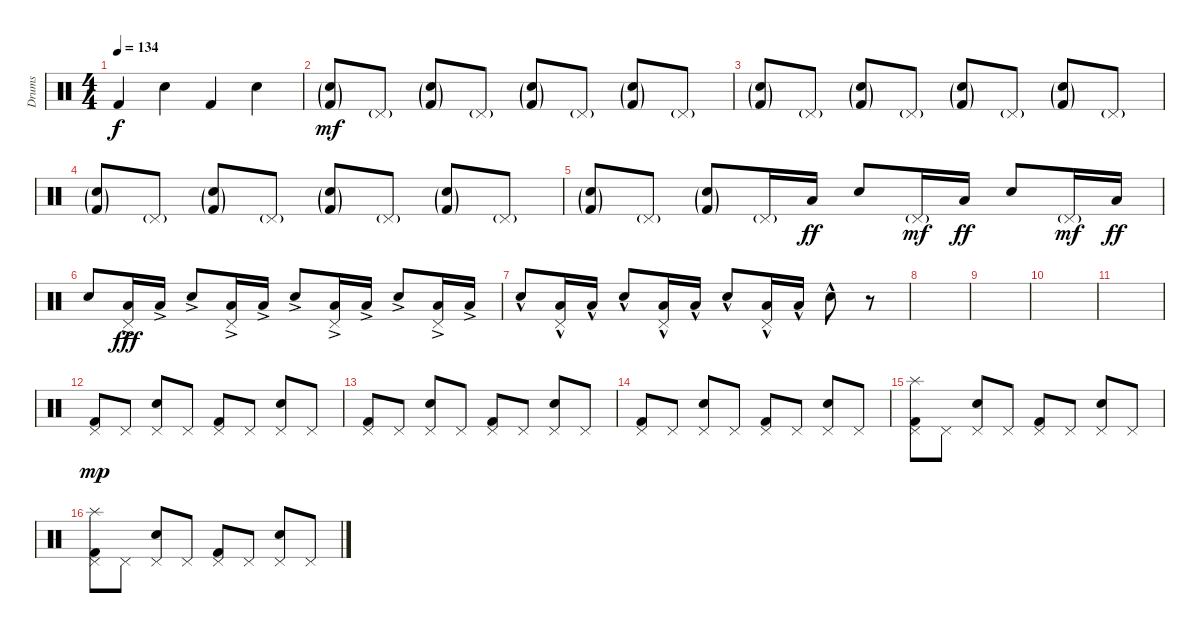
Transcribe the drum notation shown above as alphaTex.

\track ("Drums" "Drums") {instrument percussion}
\staff {score}
\articulation defaults
\ts (4 4)
\tempo 134
\clef neutral
\ks c "Kick (hit) 2".4{dy f} "Electric Snare (hit)".4 "Kick (hit) 2".4 "Electric Snare (hit)".4
|
("Electric Snare (hit)"{g} "Kick (hit) 2"{g}).8{dy mf} "Pedal Hi-Hat (hit)"{g}.8 ("Electric Snare (hit)"{g} "Kick (hit) 2"{g}).8 "Pedal Hi-Hat (hit)"{g}.8 ("Electric Snare (hit)"{g} "Kick (hit) 2"{g}).8 "Pedal Hi-Hat (hit)"{g}.8 ("Electric Snare (hit)"{g} "Kick (hit) 2"{g}).8 "Pedal Hi-Hat (hit)"{g}.8 |
("Electric Snare (hit)"{g} "Kick (hit) 2"{g}).8 "Pedal Hi-Hat (hit)"{g}.8 ("Electric Snare (hit)"{g} "Kick (hit) 2"{g}).8 "Pedal Hi-Hat (hit)"{g}.8 ("Electric Snare (hit)"{g} "Kick (hit) 2"{g}).8 "Pedal Hi-Hat (hit)"{g}.8 ("Electric Snare (hit)"{g} "Kick (hit) 2"{g}).8 "Pedal Hi-Hat (hit)"{g}.8 |
("Electric Snare (hit)"{g} "Kick (hit) 2"{g}).8 "Pedal Hi-Hat (hit)"{g}.8 ("Electric Snare (hit)"{g} "Kick (hit) 2"{g}).8 "Pedal Hi-Hat (hit)"{g}.8 ("Electric Snare (hit)"{g} "Kick (hit) 2"{g}).8 "Pedal Hi-Hat (hit)"{g}.8 ("Electric Snare (hit)"{g} "Kick (hit) 2"{g}).8 "Pedal Hi-Hat (hit)"{g}.8 |
("Electric Snare (hit)"{g} "Kick (hit) 2"{g}).8 "Pedal Hi-Hat (hit)"{g}.8 ("Electric Snare (hit)"{g} "Kick (hit) 2"{g}).8 "Pedal Hi-Hat (hit)"{g}.16 "Low Floor Tom (hit)".16{dy ff} "Electric Snare (hit)".8 "Pedal Hi-Hat (hit)"{g}.16{dy mf} "Low Floor Tom (hit)".16{dy ff} "Electric Snare (hit)".8 "Pedal Hi-Hat (hit)"{g}.16{dy mf} "Low Floor Tom (hit)".16{dy ff} |
"Electric Snare (hit)".8 ("Pedal Hi-Hat (hit)"{ac} "Low Floor Tom (hit)"{ac}).16{dy fff} "Low Floor Tom (hit)"{ac}.16 "Electric Snare (hit)"{ac}.8 ("Pedal Hi-Hat (hit)"{ac} "Low Floor Tom (hit)"{ac}).16 "Low Floor Tom (hit)"{ac}.16 "Electric Snare (hit)"{ac}.8 ("Pedal Hi-Hat (hit)"{ac} "Low Floor Tom (hit)"{ac}).16 "Low Floor Tom (hit)"{ac}.16 "Electric Snare (hit)"{ac}.8 ("Pedal Hi-Hat (hit)"{ac} "Low Floor Tom (hit)"{ac}).16 "Low Floor Tom (hit)"{ac}.16 |
"Electric Snare (hit)"{hac}.8 ("Pedal Hi-Hat (hit)"{hac} "Low Floor Tom (hit)"{hac}).16 "Low Floor Tom (hit)"{hac}.16 "Electric Snare (hit)"{hac}.8 ("Pedal Hi-Hat (hit)"{hac} "Low Floor Tom (hit)"{hac}).16 "Low Floor Tom (hit)"{hac}.16 "Electric Snare (hit)"{hac}.8 ("Pedal Hi-Hat (hit)"{hac} "Low Floor Tom (hit)"{hac}).16 "Low Floor Tom (hit)"{hac}.16 "Electric Snare (hit)"{hac}.8 r.8 |
|
|
|
|
("Pedal Hi-Hat (hit)" "Kick (hit) 2").8{dy mp} "Pedal Hi-Hat (hit)".8 ("Pedal Hi-Hat (hit)" "Electric Snare (hit)").8 "Pedal Hi-Hat (hit)".8 ("Pedal Hi-Hat (hit)" "Kick (hit) 2").8 "Pedal Hi-Hat (hit)".8 ("Pedal Hi-Hat (hit)" "Electric Snare (hit)").8 "Pedal Hi-Hat (hit)".8 |
("Pedal Hi-Hat (hit)" "Kick (hit) 2").8 "Pedal Hi-Hat (hit)".8 ("Pedal Hi-Hat (hit)" "Electric Snare (hit)").8 "Pedal Hi-Hat (hit)".8 ("Pedal Hi-Hat (hit)" "Kick (hit) 2").8 "Pedal Hi-Hat (hit)".8 ("Pedal Hi-Hat (hit)" "Electric Snare (hit)").8 "Pedal Hi-Hat (hit)".8 |
("Pedal Hi-Hat (hit)" "Kick (hit) 2").8 "Pedal Hi-Hat (hit)".8 ("Pedal Hi-Hat (hit)" "Electric Snare (hit)").8 "Pedal Hi-Hat (hit)".8 ("Pedal Hi-Hat (hit)" "Kick (hit) 2").8 "Pedal Hi-Hat (hit)".8 ("Pedal Hi-Hat (hit)" "Electric Snare (hit)").8 "Pedal Hi-Hat (hit)".8 |
("Splash (hit)" "Pedal Hi-Hat (hit)" "Kick (hit) 2").8 "Pedal Hi-Hat (hit)".8 ("Pedal Hi-Hat (hit)" "Electric Snare (hit)").8 "Pedal Hi-Hat (hit)".8 ("Pedal Hi-Hat (hit)" "Kick (hit) 2").8 "Pedal Hi-Hat (hit)".8 ("Pedal Hi-Hat (hit)" "Electric Snare (hit)").8 "Pedal Hi-Hat (hit)".8 |
("Splash (hit)" "Pedal Hi-Hat (hit)" "Kick (hit) 2").8 "Pedal Hi-Hat (hit)".8 ("Pedal Hi-Hat (hit)" "Electric Snare (hit)").8 "Pedal Hi-Hat (hit)".8 ("Pedal Hi-Hat (hit)" "Kick (hit) 2").8 "Pedal Hi-Hat (hit)".8 ("Pedal Hi-Hat (hit)" "Electric Snare (hit)").8 "Pedal Hi-Hat (hit)".8
